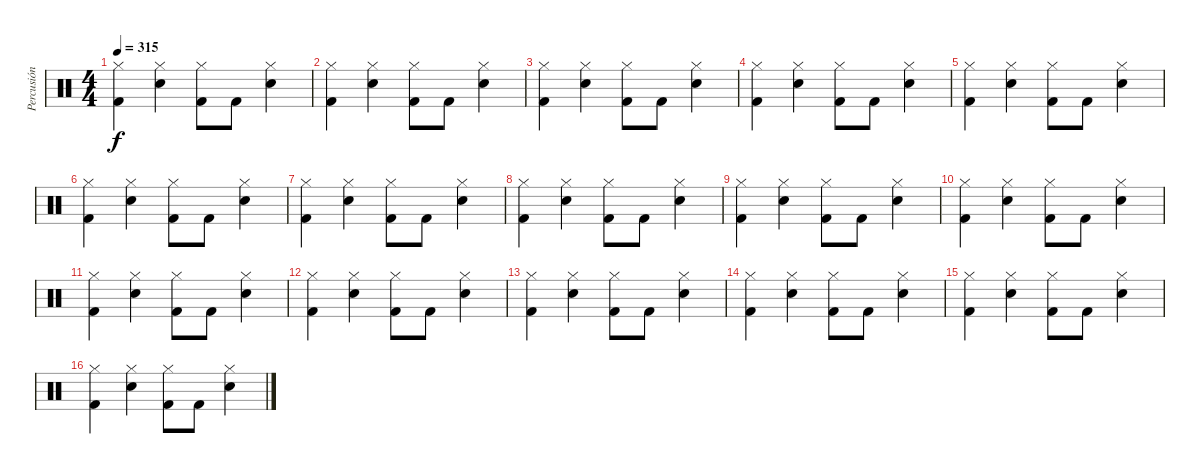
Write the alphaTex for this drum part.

\track ("Percusión" "Percusión") {instrument percussion}
\staff {score}
\articulation defaults
\ts (4 4)
\tempo 315
\clef neutral
\ks c
("Hi-Hat (closed)" "Kick (hit) 2").4{dy f} ("Hi-Hat (closed)" "Snare (hit) 2").4 ("Hi-Hat (closed)" "Kick (hit) 2").8 "Kick (hit) 2".8 ("Hi-Hat (closed)" "Snare (hit) 2").4 |
("Hi-Hat (closed)" "Kick (hit) 2").4 ("Hi-Hat (closed)" "Snare (hit) 2").4 ("Hi-Hat (closed)" "Kick (hit) 2").8 "Kick (hit) 2".8 ("Hi-Hat (closed)" "Snare (hit) 2").4 |
("Hi-Hat (closed)" "Kick (hit) 2").4 ("Hi-Hat (closed)" "Snare (hit) 2").4 ("Hi-Hat (closed)" "Kick (hit) 2").8 "Kick (hit) 2".8 ("Hi-Hat (closed)" "Snare (hit) 2").4 |
("Hi-Hat (closed)" "Kick (hit) 2").4 ("Hi-Hat (closed)" "Snare (hit) 2").4 ("Hi-Hat (closed)" "Kick (hit) 2").8 "Kick (hit) 2".8 ("Hi-Hat (closed)" "Snare (hit) 2").4 |
("Hi-Hat (closed)" "Kick (hit) 2").4 ("Hi-Hat (closed)" "Snare (hit) 2").4 ("Hi-Hat (closed)" "Kick (hit) 2").8 "Kick (hit) 2".8 ("Hi-Hat (closed)" "Snare (hit) 2").4 |
("Hi-Hat (closed)" "Kick (hit) 2").4 ("Hi-Hat (closed)" "Snare (hit) 2").4 ("Hi-Hat (closed)" "Kick (hit) 2").8 "Kick (hit) 2".8 ("Hi-Hat (closed)" "Snare (hit) 2").4 |
("Hi-Hat (closed)" "Kick (hit) 2").4 ("Hi-Hat (closed)" "Snare (hit) 2").4 ("Hi-Hat (closed)" "Kick (hit) 2").8 "Kick (hit) 2".8 ("Hi-Hat (closed)" "Snare (hit) 2").4 |
("Hi-Hat (closed)" "Kick (hit) 2").4 ("Hi-Hat (closed)" "Snare (hit) 2").4 ("Hi-Hat (closed)" "Kick (hit) 2").8 "Kick (hit) 2".8 ("Hi-Hat (closed)" "Snare (hit) 2").4 |
("Hi-Hat (closed)" "Kick (hit) 2").4 ("Hi-Hat (closed)" "Snare (hit) 2").4 ("Hi-Hat (closed)" "Kick (hit) 2").8 "Kick (hit) 2".8 ("Hi-Hat (closed)" "Snare (hit) 2").4 |
("Hi-Hat (closed)" "Kick (hit) 2").4 ("Hi-Hat (closed)" "Snare (hit) 2").4 ("Hi-Hat (closed)" "Kick (hit) 2").8 "Kick (hit) 2".8 ("Hi-Hat (closed)" "Snare (hit) 2").4 |
("Hi-Hat (closed)" "Kick (hit) 2").4 ("Hi-Hat (closed)" "Snare (hit) 2").4 ("Hi-Hat (closed)" "Kick (hit) 2").8 "Kick (hit) 2".8 ("Hi-Hat (closed)" "Snare (hit) 2").4 |
("Hi-Hat (closed)" "Kick (hit) 2").4 ("Hi-Hat (closed)" "Snare (hit) 2").4 ("Hi-Hat (closed)" "Kick (hit) 2").8 "Kick (hit) 2".8 ("Hi-Hat (closed)" "Snare (hit) 2").4 |
("Hi-Hat (closed)" "Kick (hit) 2").4 ("Hi-Hat (closed)" "Snare (hit) 2").4 ("Hi-Hat (closed)" "Kick (hit) 2").8 "Kick (hit) 2".8 ("Hi-Hat (closed)" "Snare (hit) 2").4 |
("Hi-Hat (closed)" "Kick (hit) 2").4 ("Hi-Hat (closed)" "Snare (hit) 2").4 ("Hi-Hat (closed)" "Kick (hit) 2").8 "Kick (hit) 2".8 ("Hi-Hat (closed)" "Snare (hit) 2").4 |
("Hi-Hat (closed)" "Kick (hit) 2").4 ("Hi-Hat (closed)" "Snare (hit) 2").4 ("Hi-Hat (closed)" "Kick (hit) 2").8 "Kick (hit) 2".8 ("Hi-Hat (closed)" "Snare (hit) 2").4 |
("Hi-Hat (closed)" "Kick (hit) 2").4 ("Hi-Hat (closed)" "Snare (hit) 2").4 ("Hi-Hat (closed)" "Kick (hit) 2").8 "Kick (hit) 2".8 ("Hi-Hat (closed)" "Snare (hit) 2").4
